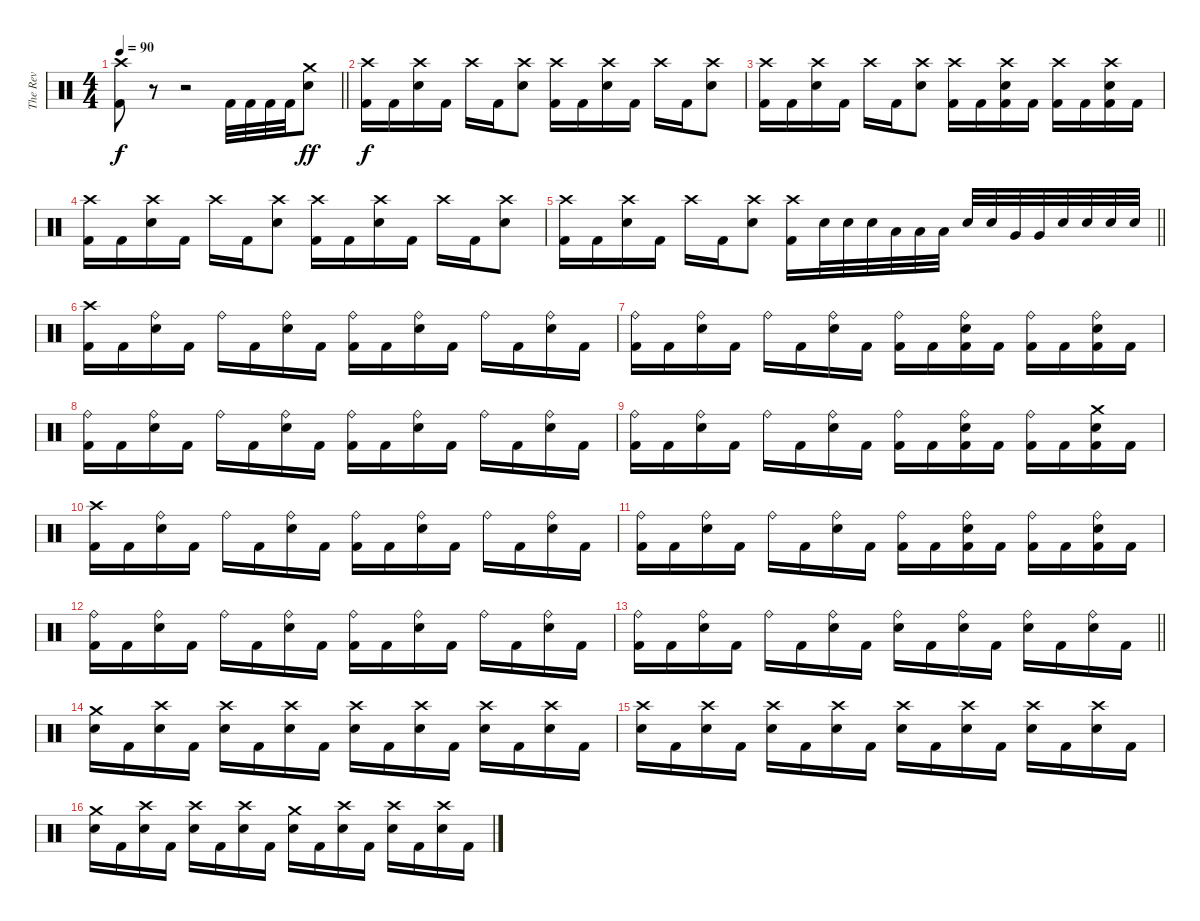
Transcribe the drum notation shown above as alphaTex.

\track ("The Rev" "The Rev") {instrument percussion}
\staff {score}
\articulation defaults
\ts (4 4)
\tempo 90
\clef neutral
\barLineRight lightlight
\ks c
("Crash high (hit)" "Kick (hit) 2").8{dy f} r.8 r.2 "Kick (hit) 2".32 "Kick (hit) 2".32 "Kick (hit) 2".32 "Kick (hit) 2".32 ("Crash medium (hit)" "Electric Snare (hit)").8{dy ff} |
("Crash high (hit)" "Kick (hit) 2").16{dy f} "Kick (hit) 2".16 ("Crash high (hit)" "Electric Snare (hit)").16 "Kick (hit) 2".16 "Crash high (hit)".16 "Kick (hit) 2".16 ("Crash high (hit)" "Electric Snare (hit)").8 ("Crash high (hit)" "Kick (hit) 2").16 "Kick (hit) 2".16 ("Crash high (hit)" "Electric Snare (hit)").16 "Kick (hit) 2".16 "Crash high (hit)".16 "Kick (hit) 2".16 ("Crash high (hit)" "Electric Snare (hit)").8 |
("Crash high (hit)" "Kick (hit) 2").16 "Kick (hit) 2".16 ("Crash high (hit)" "Electric Snare (hit)").16 "Kick (hit) 2".16 "Crash high (hit)".16 "Kick (hit) 2".16 ("Crash high (hit)" "Electric Snare (hit)").8 ("Crash high (hit)" "Kick (hit) 2").16 "Kick (hit) 2".16 ("Crash high (hit)" "Electric Snare (hit)" "Kick (hit) 2").16 "Kick (hit) 2".16 ("Crash high (hit)" "Kick (hit) 2").16 "Kick (hit) 2".16 ("Crash high (hit)" "Electric Snare (hit)" "Kick (hit) 2").16 "Kick (hit) 2".16 |
("Crash high (hit)" "Kick (hit) 2").16 "Kick (hit) 2".16 ("Crash high (hit)" "Electric Snare (hit)").16 "Kick (hit) 2".16 "Crash high (hit)".16 "Kick (hit) 2".16 ("Crash high (hit)" "Electric Snare (hit)").8 ("Crash high (hit)" "Kick (hit) 2").16 "Kick (hit) 2".16 ("Crash high (hit)" "Electric Snare (hit)").16 "Kick (hit) 2".16 "Crash high (hit)".16 "Kick (hit) 2".16 ("Crash high (hit)" "Electric Snare (hit)").8 |
\barLineRight lightlight
("Crash high (hit)" "Kick (hit) 2").16 "Kick (hit) 2".16 ("Crash high (hit)" "Electric Snare (hit)").16 "Kick (hit) 2".16 "Crash high (hit)".16 "Kick (hit) 2".16 ("Crash high (hit)" "Electric Snare (hit)").8 ("Crash high (hit)" "Kick (hit) 2").16 "Electric Snare (hit)".32 "Electric Snare (hit)".32 "Electric Snare (hit)".32 "Low Tom (hit)".32 "Low Tom (hit)".32 "Low Tom (hit)".32 "Electric Snare (hit)".32 "Electric Snare (hit)".32 "Very Low Tom (hit)".32 "Very Low Tom (hit)".32 "Electric Snare (hit)".32 "Electric Snare (hit)".32 "Electric Snare (hit)".32 "Electric Snare (hit)".32 |
("Crash high (hit)" "Kick (hit) 2").16 "Kick (hit) 2".16 ("Ride (bell)" "Electric Snare (hit)").16 "Kick (hit) 2".16 "Ride (bell)".16 "Kick (hit) 2".16 ("Ride (bell)" "Electric Snare (hit)").16 "Kick (hit) 2".16 ("Ride (bell)" "Kick (hit) 2").16 "Kick (hit) 2".16 ("Ride (bell)" "Electric Snare (hit)").16 "Kick (hit) 2".16 "Ride (bell)".16 "Kick (hit) 2".16 ("Ride (bell)" "Electric Snare (hit)").16 "Kick (hit) 2".16 |
("Ride (bell)" "Kick (hit) 2").16 "Kick (hit) 2".16 ("Ride (bell)" "Electric Snare (hit)").16 "Kick (hit) 2".16 "Ride (bell)".16 "Kick (hit) 2".16 ("Ride (bell)" "Electric Snare (hit)").16 "Kick (hit) 2".16 ("Ride (bell)" "Kick (hit) 2").16 "Kick (hit) 2".16 ("Ride (bell)" "Electric Snare (hit)" "Kick (hit) 2").16 "Kick (hit) 2".16 ("Ride (bell)" "Kick (hit) 2").16 "Kick (hit) 2".16 ("Ride (bell)" "Electric Snare (hit)" "Kick (hit) 2").16 "Kick (hit) 2".16 |
("Ride (bell)" "Kick (hit) 2").16 "Kick (hit) 2".16 ("Ride (bell)" "Electric Snare (hit)").16 "Kick (hit) 2".16 "Ride (bell)".16 "Kick (hit) 2".16 ("Ride (bell)" "Electric Snare (hit)").16 "Kick (hit) 2".16 ("Ride (bell)" "Kick (hit) 2").16 "Kick (hit) 2".16 ("Ride (bell)" "Electric Snare (hit)").16 "Kick (hit) 2".16 "Ride (bell)".16 "Kick (hit) 2".16 ("Ride (bell)" "Electric Snare (hit)").16 "Kick (hit) 2".16 |
("Ride (bell)" "Kick (hit) 2").16 "Kick (hit) 2".16 ("Ride (bell)" "Electric Snare (hit)").16 "Kick (hit) 2".16 "Ride (bell)".16 "Kick (hit) 2".16 ("Ride (bell)" "Electric Snare (hit)").16 "Kick (hit) 2".16 ("Ride (bell)" "Kick (hit) 2").16 "Kick (hit) 2".16 ("Ride (bell)" "Electric Snare (hit)" "Kick (hit) 2").16 "Kick (hit) 2".16 ("Ride (bell)" "Kick (hit) 2").16 "Kick (hit) 2".16 ("Crash medium (hit)" "Electric Snare (hit)" "Kick (hit) 2").16 "Kick (hit) 2".16 |
("Crash high (hit)" "Kick (hit) 2").16 "Kick (hit) 2".16 ("Ride (bell)" "Electric Snare (hit)").16 "Kick (hit) 2".16 "Ride (bell)".16 "Kick (hit) 2".16 ("Ride (bell)" "Electric Snare (hit)").16 "Kick (hit) 2".16 ("Ride (bell)" "Kick (hit) 2").16 "Kick (hit) 2".16 ("Ride (bell)" "Electric Snare (hit)").16 "Kick (hit) 2".16 "Ride (bell)".16 "Kick (hit) 2".16 ("Ride (bell)" "Electric Snare (hit)").16 "Kick (hit) 2".16 |
("Ride (bell)" "Kick (hit) 2").16 "Kick (hit) 2".16 ("Ride (bell)" "Electric Snare (hit)").16 "Kick (hit) 2".16 "Ride (bell)".16 "Kick (hit) 2".16 ("Ride (bell)" "Electric Snare (hit)").16 "Kick (hit) 2".16 ("Ride (bell)" "Kick (hit) 2").16 "Kick (hit) 2".16 ("Ride (bell)" "Electric Snare (hit)" "Kick (hit) 2").16 "Kick (hit) 2".16 ("Ride (bell)" "Kick (hit) 2").16 "Kick (hit) 2".16 ("Ride (bell)" "Electric Snare (hit)" "Kick (hit) 2").16 "Kick (hit) 2".16 |
("Ride (bell)" "Kick (hit) 2").16 "Kick (hit) 2".16 ("Ride (bell)" "Electric Snare (hit)").16 "Kick (hit) 2".16 "Ride (bell)".16 "Kick (hit) 2".16 ("Ride (bell)" "Electric Snare (hit)").16 "Kick (hit) 2".16 ("Ride (bell)" "Kick (hit) 2").16 "Kick (hit) 2".16 ("Ride (bell)" "Electric Snare (hit)").16 "Kick (hit) 2".16 "Ride (bell)".16 "Kick (hit) 2".16 ("Ride (bell)" "Electric Snare (hit)").16 "Kick (hit) 2".16 |
\barLineRight lightlight
("Ride (bell)" "Kick (hit) 2").16 "Kick (hit) 2".16 ("Ride (bell)" "Electric Snare (hit)").16 "Kick (hit) 2".16 "Ride (bell)".16 "Kick (hit) 2".16 ("Ride (bell)" "Electric Snare (hit)").16 "Kick (hit) 2".16 ("Ride (bell)" "Electric Snare (hit)").16 "Kick (hit) 2".16 ("Ride (bell)" "Electric Snare (hit)").16 "Kick (hit) 2".16 ("Ride (bell)" "Electric Snare (hit)").16 "Kick (hit) 2".16 ("Ride (bell)" "Electric Snare (hit)").16 "Kick (hit) 2".16 |
("Crash medium (hit)" "Electric Snare (hit)").16 "Kick (hit) 2".16 ("Crash high (hit)" "Electric Snare (hit)").16 "Kick (hit) 2".16 ("Crash high (hit)" "Electric Snare (hit)").16 "Kick (hit) 2".16 ("Crash high (hit)" "Electric Snare (hit)").16 "Kick (hit) 2".16 ("Crash high (hit)" "Electric Snare (hit)").16 "Kick (hit) 2".16 ("Crash high (hit)" "Electric Snare (hit)").16 "Kick (hit) 2".16 ("Crash high (hit)" "Electric Snare (hit)").16 "Kick (hit) 2".16 ("Crash high (hit)" "Electric Snare (hit)").16 "Kick (hit) 2".16 |
("Crash high (hit)" "Electric Snare (hit)").16 "Kick (hit) 2".16 ("Crash high (hit)" "Electric Snare (hit)").16 "Kick (hit) 2".16 ("Crash high (hit)" "Electric Snare (hit)").16 "Kick (hit) 2".16 ("Crash high (hit)" "Electric Snare (hit)").16 "Kick (hit) 2".16 ("Crash high (hit)" "Electric Snare (hit)").16 "Kick (hit) 2".16 ("Crash high (hit)" "Electric Snare (hit)").16 "Kick (hit) 2".16 ("Crash high (hit)" "Electric Snare (hit)").16 "Kick (hit) 2".16 ("Crash high (hit)" "Electric Snare (hit)").16 "Kick (hit) 2".16 |
("Crash medium (hit)" "Electric Snare (hit)").16 "Kick (hit) 2".16 ("Crash high (hit)" "Electric Snare (hit)").16 "Kick (hit) 2".16 ("Crash high (hit)" "Electric Snare (hit)").16 "Kick (hit) 2".16 ("Crash high (hit)" "Electric Snare (hit)").16 "Kick (hit) 2".16 ("Crash medium (hit)" "Electric Snare (hit)").16 "Kick (hit) 2".16 ("Crash high (hit)" "Electric Snare (hit)").16 "Kick (hit) 2".16 ("Crash high (hit)" "Electric Snare (hit)").16 "Kick (hit) 2".16 ("Crash high (hit)" "Electric Snare (hit)").16 "Kick (hit) 2".16
